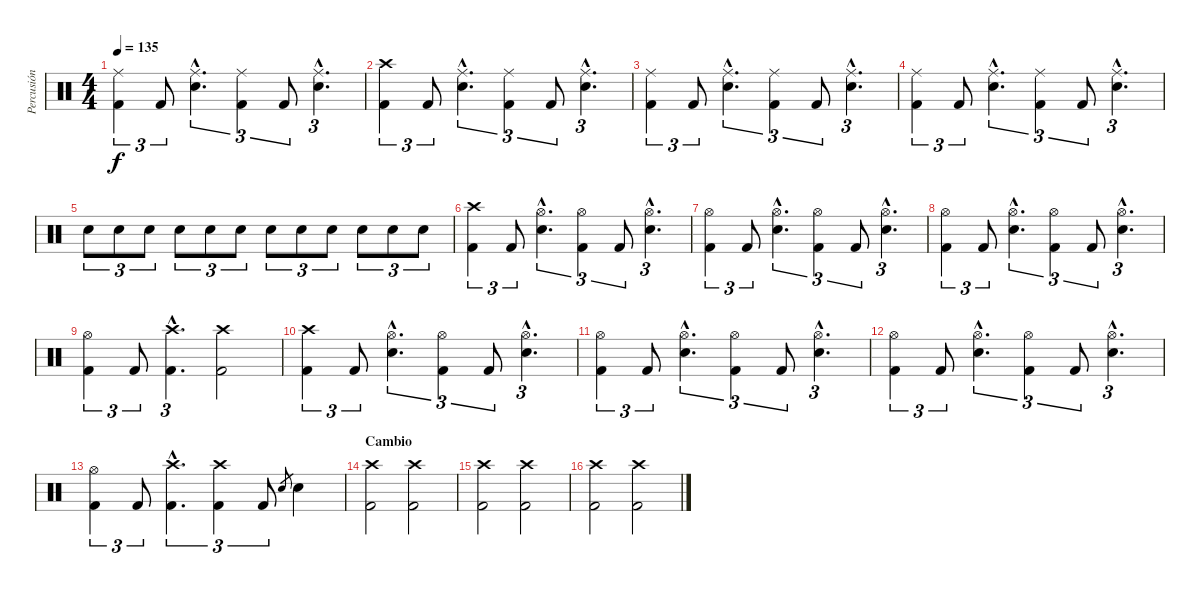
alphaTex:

\track ("Percusión" "Percusión") {instrument percussion}
\staff {score}
\articulation defaults
\ts (4 4)
\tempo 135
\clef neutral
\ks c
("Ride (middle)" "Kick (hit) 2").4{tu (3 2) dy f} "Kick (hit) 2".8{tu (3 2)} ("Ride (middle)"{hac} "Snare (hit) 2"{hac}).4{d tu (3 2)} ("Ride (middle)" "Kick (hit) 2").4{tu (3 2)} "Kick (hit) 2".8{tu (3 2)} ("Ride (middle)"{hac} "Snare (hit) 2"{hac}).4{d tu (3 2)} |
("Crash high (hit)" "Kick (hit) 2").4{tu (3 2)} "Kick (hit) 2".8{tu (3 2)} ("Ride (middle)"{hac} "Snare (hit) 2"{hac}).4{d tu (3 2)} ("Ride (middle)" "Kick (hit) 2").4{tu (3 2)} "Kick (hit) 2".8{tu (3 2)} ("Ride (middle)"{hac} "Snare (hit) 2"{hac}).4{d tu (3 2)} |
("Ride (middle)" "Kick (hit) 2").4{tu (3 2)} "Kick (hit) 2".8{tu (3 2)} ("Ride (middle)"{hac} "Snare (hit) 2"{hac}).4{d tu (3 2)} ("Ride (middle)" "Kick (hit) 2").4{tu (3 2)} "Kick (hit) 2".8{tu (3 2)} ("Ride (middle)"{hac} "Snare (hit) 2"{hac}).4{d tu (3 2)} |
("Ride (middle)" "Kick (hit) 2").4{tu (3 2)} "Kick (hit) 2".8{tu (3 2)} ("Ride (middle)"{hac} "Snare (hit) 2"{hac}).4{d tu (3 2)} ("Ride (middle)" "Kick (hit) 2").4{tu (3 2)} "Kick (hit) 2".8{tu (3 2)} ("Ride (middle)"{hac} "Snare (hit) 2"{hac}).4{d tu (3 2)} |
"Snare (hit) 2".8{tu (3 2)} "Snare (hit) 2".8{tu (3 2)} "Snare (hit) 2".8{tu (3 2)} "Snare (hit) 2".8{tu (3 2)} "Snare (hit) 2".8{tu (3 2)} "Snare (hit) 2".8{tu (3 2)} "Snare (hit) 2".8{tu (3 2)} "Snare (hit) 2".8{tu (3 2)} "Snare (hit) 2".8{tu (3 2)} "Snare (hit) 2".8{tu (3 2)} "Snare (hit) 2".8{tu (3 2)} "Snare (hit) 2".8{tu (3 2)} |
("Crash high (hit)" "Kick (hit) 2").4{tu (3 2)} "Kick (hit) 2".8{tu (3 2)} ("Hi-Hat (open)"{hac} "Snare (hit) 2"{hac}).4{d tu (3 2)} ("Hi-Hat (open)" "Kick (hit) 2").4{tu (3 2)} "Kick (hit) 2".8{tu (3 2)} ("Hi-Hat (open)"{hac} "Snare (hit) 2"{hac}).4{d tu (3 2)} |
("Hi-Hat (open)" "Kick (hit) 2").4{tu (3 2)} "Kick (hit) 2".8{tu (3 2)} ("Hi-Hat (open)"{hac} "Snare (hit) 2"{hac}).4{d tu (3 2)} ("Hi-Hat (open)" "Kick (hit) 2").4{tu (3 2)} "Kick (hit) 2".8{tu (3 2)} ("Hi-Hat (open)"{hac} "Snare (hit) 2"{hac}).4{d tu (3 2)} |
("Hi-Hat (open)" "Kick (hit) 2").4{tu (3 2)} "Kick (hit) 2".8{tu (3 2)} ("Hi-Hat (open)"{hac} "Snare (hit) 2"{hac}).4{d tu (3 2)} ("Hi-Hat (open)" "Kick (hit) 2").4{tu (3 2)} "Kick (hit) 2".8{tu (3 2)} ("Hi-Hat (open)"{hac} "Snare (hit) 2"{hac}).4{d tu (3 2)} |
("Hi-Hat (open)" "Kick (hit) 2").4{tu (3 2)} "Kick (hit) 2".8{tu (3 2)} ("Crash high (hit)"{hac} "Kick (hit) 2"{hac}).4{d tu (3 2)} ("Crash high (hit)" "Kick (hit) 2").2 |
("Crash high (hit)" "Kick (hit) 2").4{tu (3 2)} "Kick (hit) 2".8{tu (3 2)} ("Hi-Hat (open)"{hac} "Snare (hit) 2"{hac}).4{d tu (3 2)} ("Hi-Hat (open)" "Kick (hit) 2").4{tu (3 2)} "Kick (hit) 2".8{tu (3 2)} ("Hi-Hat (open)"{hac} "Snare (hit) 2"{hac}).4{d tu (3 2)} |
("Hi-Hat (open)" "Kick (hit) 2").4{tu (3 2)} "Kick (hit) 2".8{tu (3 2)} ("Hi-Hat (open)"{hac} "Snare (hit) 2"{hac}).4{d tu (3 2)} ("Hi-Hat (open)" "Kick (hit) 2").4{tu (3 2)} "Kick (hit) 2".8{tu (3 2)} ("Hi-Hat (open)"{hac} "Snare (hit) 2"{hac}).4{d tu (3 2)} |
("Hi-Hat (open)" "Kick (hit) 2").4{tu (3 2)} "Kick (hit) 2".8{tu (3 2)} ("Hi-Hat (open)"{hac} "Snare (hit) 2"{hac}).4{d tu (3 2)} ("Hi-Hat (open)" "Kick (hit) 2").4{tu (3 2)} "Kick (hit) 2".8{tu (3 2)} ("Hi-Hat (open)"{hac} "Snare (hit) 2"{hac}).4{d tu (3 2)} |
("Hi-Hat (open)" "Kick (hit) 2").4{tu (3 2)} "Kick (hit) 2".8{tu (3 2)} ("Crash high (hit)"{hac} "Kick (hit) 2"{hac}).4{d tu (3 2)} ("Crash high (hit)" "Kick (hit) 2").4{tu (3 2)} "Kick (hit) 2".8{tu (3 2)} "Snare (hit) 2".8{gr} "Snare (hit) 2".4 |
\section ("" "Cambio")
("Crash high (hit)" "Kick (hit) 2").2 ("Crash high (hit)" "Kick (hit) 2").2{volume 0} |
("Crash high (hit)" "Kick (hit) 2").2{volume 13} ("Crash high (hit)" "Kick (hit) 2").2{volume 0} |
("Crash high (hit)" "Kick (hit) 2").2{volume 13} ("Crash high (hit)" "Kick (hit) 2").2{volume 0}
